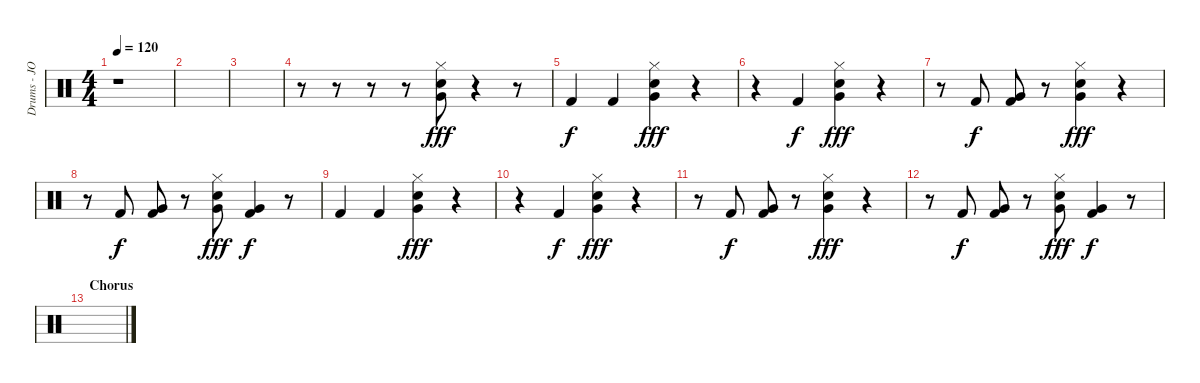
\track ("Drums - JOHN" "Drums - JO") {instrument percussion}
\staff {score}
\articulation defaults
\ts (4 4)
\tempo 120
\clef neutral
\ks c
r.1{dy f} |
|
|
r.8 r.8 r.8 r.8 ("Hi-Hat (closed)" "Very Low Tom (hit)" "Snare (hit) 2").8{dy fff} r.4 r.8 |
"Kick (hit) 2".4{dy f} "Kick (hit) 2".4 ("Hi-Hat (closed)" "Very Low Tom (hit)" "Snare (hit) 2").4{dy fff} r.4 |
r.4 "Kick (hit) 2".4{dy f} ("Hi-Hat (closed)" "Very Low Tom (hit)" "Snare (hit) 2").4{dy fff} r.4 |
r.8 "Kick (hit) 2".8{dy f} ("Very Low Tom (hit)" "Kick (hit) 2").8 r.8 ("Hi-Hat (closed)" "Very Low Tom (hit)" "Snare (hit) 2").4{dy fff} r.4 |
r.8 "Kick (hit) 2".8{dy f} ("Very Low Tom (hit)" "Kick (hit) 2").8 r.8 ("Hi-Hat (closed)" "Very Low Tom (hit)" "Snare (hit) 2").8{dy fff} ("Very Low Tom (hit)" "Kick (hit) 2").4{dy f} r.8 |
"Kick (hit) 2".4 "Kick (hit) 2".4 ("Hi-Hat (closed)" "Very Low Tom (hit)" "Snare (hit) 2").4{dy fff} r.4 |
r.4 "Kick (hit) 2".4{dy f} ("Hi-Hat (closed)" "Very Low Tom (hit)" "Snare (hit) 2").4{dy fff} r.4 |
r.8 "Kick (hit) 2".8{dy f} ("Very Low Tom (hit)" "Kick (hit) 2").8 r.8 ("Hi-Hat (closed)" "Very Low Tom (hit)" "Snare (hit) 2").4{dy fff} r.4 |
r.8 "Kick (hit) 2".8{dy f} ("Very Low Tom (hit)" "Kick (hit) 2").8 r.8 ("Hi-Hat (closed)" "Very Low Tom (hit)" "Snare (hit) 2").8{dy fff} ("Very Low Tom (hit)" "Kick (hit) 2").4{dy f} r.8 |
\section ("" "Chorus")
